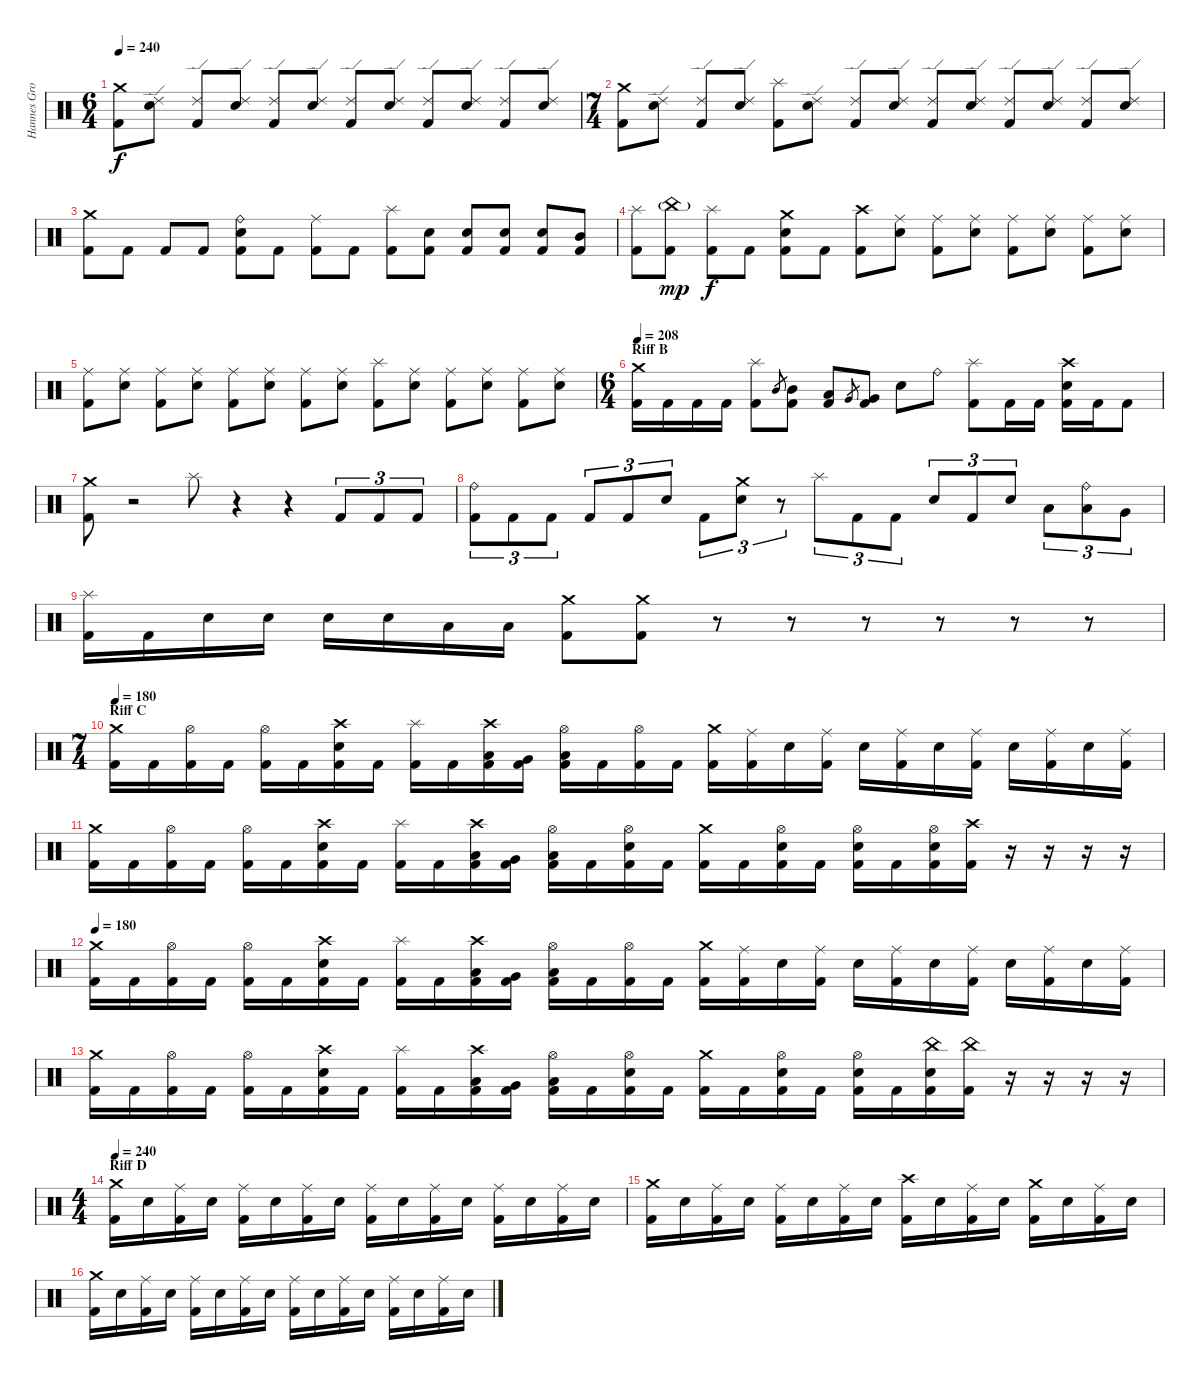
\track ("Hannes Grossmann" "Hannes Gro") {instrument percussion}
\staff {score}
\articulation defaults
\ts (6 4)
\tempo 240
\clef neutral
\ks c
("Crash medium (hit)" "Kick (hit) 2").8{dy f} ("Ride (edge) 2" "Electric Snare (hit)").8 ("Ride (edge) 2" "Kick (hit) 2").8 ("Ride (edge) 2" "Electric Snare (hit)").8 ("Ride (edge) 2" "Kick (hit) 2").8 ("Ride (edge) 2" "Electric Snare (hit)").8 ("Ride (edge) 2" "Kick (hit) 2").8 ("Ride (edge) 2" "Electric Snare (hit)").8 ("Ride (edge) 2" "Kick (hit) 2").8 ("Ride (edge) 2" "Electric Snare (hit)").8 ("Ride (edge) 2" "Kick (hit) 2").8 ("Ride (edge) 2" "Electric Snare (hit)").8 |
\ts (7 4)
("Crash medium (hit)" "Kick (hit) 2").8 ("Ride (edge) 2" "Electric Snare (hit)").8 ("Ride (edge) 2" "Kick (hit) 2").8 ("Ride (edge) 2" "Electric Snare (hit)").8 ("Splash (hit)" "Kick (hit) 2").8 ("Ride (edge) 2" "Electric Snare (hit)").8 ("Ride (edge) 2" "Kick (hit) 2").8 ("Ride (edge) 2" "Electric Snare (hit)").8 ("Ride (edge) 2" "Kick (hit) 2").8 ("Ride (edge) 2" "Electric Snare (hit)").8 ("Ride (edge) 2" "Kick (hit) 2").8 ("Ride (edge) 2" "Electric Snare (hit)").8 ("Ride (edge) 2" "Kick (hit) 2").8 ("Ride (edge) 2" "Electric Snare (hit)").8 |
("Crash medium (hit)" "Kick (hit) 2").8 "Kick (hit) 2".8 "Kick (hit) 2".8 "Kick (hit) 2".8 ("Ride (bell)" "Electric Snare (hit)" "Kick (hit) 2").8 "Kick (hit) 2".8 ("Ride (middle)" "Kick (hit) 2").8 "Kick (hit) 2".8 ("Splash (hit)" "Kick (hit) 2").8 ("Electric Snare (hit)" "Kick (hit) 2").8 ("Electric Snare (hit)" "Kick (hit) 2").8 ("Electric Snare (hit)" "Kick (hit) 2").8 ("Electric Snare (hit)" "Kick (hit) 2").8 ("Mid Tom (hit)" "Kick (hit) 2").8 |
("Splash (hit)" "Kick (hit) 2").8 ("China (hit)"{g} "Kick (hit) 2").8{dy mp} ("Splash (hit)" "Kick (hit) 2").8{dy f} "Kick (hit) 2".8 ("Crash medium (hit)" "Electric Snare (hit)" "Kick (hit) 2").8 "Kick (hit) 2".8 ("Crash high (hit)" "Kick (hit) 2").8 ("Ride (middle)" "Electric Snare (hit)").8 ("Ride (middle)" "Kick (hit) 2").8 ("Ride (middle)" "Electric Snare (hit)").8 ("Ride (middle)" "Kick (hit) 2").8 ("Ride (middle)" "Electric Snare (hit)").8 ("Ride (middle)" "Kick (hit) 2").8 ("Ride (middle)" "Electric Snare (hit)").8 |
("Ride (middle)" "Kick (hit) 2").8 ("Ride (middle)" "Electric Snare (hit)").8 ("Ride (middle)" "Kick (hit) 2").8 ("Ride (middle)" "Electric Snare (hit)").8 ("Ride (middle)" "Kick (hit) 2").8 ("Ride (middle)" "Electric Snare (hit)").8 ("Ride (middle)" "Kick (hit) 2").8 ("Ride (middle)" "Electric Snare (hit)").8 ("Splash (hit)" "Kick (hit) 2").8 ("Ride (middle)" "Electric Snare (hit)").8 ("Ride (middle)" "Kick (hit) 2").8 ("Ride (middle)" "Electric Snare (hit)").8 ("Ride (middle)" "Kick (hit) 2").8 ("Ride (middle)" "Electric Snare (hit)").8 |
\ts (6 4)
\section ("" "Riff B")
\tempo 208
("Crash medium (hit)" "Kick (hit) 2").16 "Kick (hit) 2".16 "Kick (hit) 2".16 "Kick (hit) 2".16 ("Splash (hit)" "Kick (hit) 2").8 "Mid Tom (hit)".8{gr} ("Mid Tom (hit)" "Kick (hit) 2").8 ("Low Tom (hit)" "Kick (hit) 2").8 "Very Low Tom (hit)".8{gr} ("Very Low Tom (hit)" "Kick (hit) 2").8 "Electric Snare (hit)".8 "Ride (bell)".8 ("Splash (hit)" "Kick (hit) 2").8 "Kick (hit) 2".16 "Kick (hit) 2".16 ("Crash high (hit)" "Electric Snare (hit)" "Kick (hit) 2").16 "Kick (hit) 2".16 "Kick (hit) 2".8 |
("Crash medium (hit)" "Kick (hit) 2").8 r.2 "Splash (hit)".8 r.4 r.4 "Kick (hit) 2".8{tu (3 2)} "Kick (hit) 2".8{tu (3 2)} "Kick (hit) 2".8{tu (3 2)} |
("Ride (bell)" "Kick (hit) 2").8{tu (3 2)} "Kick (hit) 2".8{tu (3 2)} "Kick (hit) 2".8{tu (3 2)} "Kick (hit) 2".8{tu (3 2)} "Kick (hit) 2".8{tu (3 2)} "Electric Snare (hit)".8{tu (3 2)} "Kick (hit) 2".8{tu (3 2)} ("Crash medium (hit)" "Electric Snare (hit)").8{tu (3 2)} r.8{tu (3 2)} "Splash (hit)".8{tu (3 2)} "Kick (hit) 2".8{tu (3 2)} "Kick (hit) 2".8{tu (3 2)} "Electric Snare (hit)".8{tu (3 2)} "Kick (hit) 2".8{tu (3 2)} "Electric Snare (hit)".8{tu (3 2)} "Low Tom (hit)".8{tu (3 2)} ("Ride (bell)" "Low Tom (hit)").8{tu (3 2)} "Very Low Tom (hit)".8{tu (3 2)} |
("Splash (hit)" "Kick (hit) 2").16 "Kick (hit) 2".16 "Electric Snare (hit)".16 "Electric Snare (hit)".16 "Electric Snare (hit)".16 "Electric Snare (hit)".16 "Low Tom (hit)".16 "Low Tom (hit)".16 ("Crash medium (hit)" "Kick (hit) 2").8 ("Crash medium (hit)" "Kick (hit) 2").8 r.8 r.8 r.8 r.8 r.8 r.8 |
\ts (7 4)
\section ("" "Riff C")
\tempo 180
("Crash medium (hit)" "Kick (hit) 2").16 "Kick (hit) 2".16 ("Hi-Hat (open)" "Kick (hit) 2").16 "Kick (hit) 2".16 ("Hi-Hat (open)" "Kick (hit) 2").16 "Kick (hit) 2".16 ("Crash high (hit)" "Electric Snare (hit)" "Kick (hit) 2").16 "Kick (hit) 2".16 ("Splash (hit)" "Kick (hit) 2").16 "Kick (hit) 2".16 ("Crash high (hit)" "Low Tom (hit)" "Kick (hit) 2").16 ("Very Low Tom (hit)" "Kick (hit) 2").16 ("Hi-Hat (open)" "Low Tom (hit)" "Kick (hit) 2").16 "Kick (hit) 2".16 ("Hi-Hat (open)" "Kick (hit) 2").16 "Kick (hit) 2".16 ("Crash medium (hit)" "Kick (hit) 2").16 ("Ride (middle)" "Kick (hit) 2").16 "Electric Snare (hit)".16 ("Ride (middle)" "Kick (hit) 2").16 "Electric Snare (hit)".16 ("Ride (middle)" "Kick (hit) 2").16 "Electric Snare (hit)".16 ("Ride (middle)" "Kick (hit) 2").16 "Electric Snare (hit)".16 ("Ride (middle)" "Kick (hit) 2").16 "Electric Snare (hit)".16 ("Ride (middle)" "Kick (hit) 2").16 |
("Crash medium (hit)" "Kick (hit) 2").16 "Kick (hit) 2".16 ("Hi-Hat (open)" "Kick (hit) 2").16 "Kick (hit) 2".16 ("Hi-Hat (open)" "Kick (hit) 2").16 "Kick (hit) 2".16 ("Crash high (hit)" "Electric Snare (hit)" "Kick (hit) 2").16 "Kick (hit) 2".16 ("Splash (hit)" "Kick (hit) 2").16 "Kick (hit) 2".16 ("Crash high (hit)" "Low Tom (hit)" "Kick (hit) 2").16 ("Very Low Tom (hit)" "Kick (hit) 2").16 ("Hi-Hat (open)" "Low Tom (hit)" "Kick (hit) 2").16 "Kick (hit) 2".16 ("Hi-Hat (open)" "Electric Snare (hit)" "Kick (hit) 2").16 "Kick (hit) 2".16 ("Crash medium (hit)" "Kick (hit) 2").16 "Kick (hit) 2".16 ("Hi-Hat (open)" "Electric Snare (hit)" "Kick (hit) 2").16 "Kick (hit) 2".16 ("Hi-Hat (open)" "Electric Snare (hit)" "Kick (hit) 2").16 "Kick (hit) 2".16 ("Hi-Hat (open)" "Electric Snare (hit)" "Kick (hit) 2").16 ("Crash high (hit)" "Kick (hit) 2").16 r.16 r.16 r.16 r.16 |
\tempo 180
("Crash medium (hit)" "Kick (hit) 2").16 "Kick (hit) 2".16 ("Hi-Hat (open)" "Kick (hit) 2").16 "Kick (hit) 2".16 ("Hi-Hat (open)" "Kick (hit) 2").16 "Kick (hit) 2".16 ("Crash high (hit)" "Electric Snare (hit)" "Kick (hit) 2").16 "Kick (hit) 2".16 ("Splash (hit)" "Kick (hit) 2").16 "Kick (hit) 2".16 ("Crash high (hit)" "Low Tom (hit)" "Kick (hit) 2").16 ("Very Low Tom (hit)" "Kick (hit) 2").16 ("Hi-Hat (open)" "Low Tom (hit)" "Kick (hit) 2").16 "Kick (hit) 2".16 ("Hi-Hat (open)" "Kick (hit) 2").16 "Kick (hit) 2".16 ("Crash medium (hit)" "Kick (hit) 2").16 ("Ride (middle)" "Kick (hit) 2").16 "Electric Snare (hit)".16 ("Ride (middle)" "Kick (hit) 2").16 "Electric Snare (hit)".16 ("Ride (middle)" "Kick (hit) 2").16 "Electric Snare (hit)".16 ("Ride (middle)" "Kick (hit) 2").16 "Electric Snare (hit)".16 ("Ride (middle)" "Kick (hit) 2").16 "Electric Snare (hit)".16 ("Ride (middle)" "Kick (hit) 2").16 |
("Crash medium (hit)" "Kick (hit) 2").16 "Kick (hit) 2".16 ("Hi-Hat (open)" "Kick (hit) 2").16 "Kick (hit) 2".16 ("Hi-Hat (open)" "Kick (hit) 2").16 "Kick (hit) 2".16 ("Crash high (hit)" "Electric Snare (hit)" "Kick (hit) 2").16 "Kick (hit) 2".16 ("Splash (hit)" "Kick (hit) 2").16 "Kick (hit) 2".16 ("Crash high (hit)" "Low Tom (hit)" "Kick (hit) 2").16 ("Very Low Tom (hit)" "Kick (hit) 2").16 ("Hi-Hat (open)" "Low Tom (hit)" "Kick (hit) 2").16 "Kick (hit) 2".16 ("Hi-Hat (open)" "Electric Snare (hit)" "Kick (hit) 2").16 "Kick (hit) 2".16 ("Crash medium (hit)" "Kick (hit) 2").16 "Kick (hit) 2".16 ("Hi-Hat (open)" "Electric Snare (hit)" "Kick (hit) 2").16 "Kick (hit) 2".16 ("Hi-Hat (open)" "Electric Snare (hit)" "Kick (hit) 2").16 "Kick (hit) 2".16 ("China (hit)" "Electric Snare (hit)" "Kick (hit) 2").16 ("China (hit)" "Kick (hit) 2").16 r.16 r.16 r.16 r.16 |
\ts (4 4)
\section ("" "Riff D")
\tempo 240
("Crash medium (hit)" "Kick (hit) 2").16 "Electric Snare (hit)".16 ("Ride (middle)" "Kick (hit) 2").16 "Electric Snare (hit)".16 ("Ride (middle)" "Kick (hit) 2").16 "Electric Snare (hit)".16 ("Ride (middle)" "Kick (hit) 2").16 "Electric Snare (hit)".16 ("Ride (middle)" "Kick (hit) 2").16 "Electric Snare (hit)".16 ("Ride (middle)" "Kick (hit) 2").16 "Electric Snare (hit)".16 ("Ride (middle)" "Kick (hit) 2").16 "Electric Snare (hit)".16 ("Ride (middle)" "Kick (hit) 2").16 "Electric Snare (hit)".16 |
("Crash medium (hit)" "Kick (hit) 2").16 "Electric Snare (hit)".16 ("Ride (middle)" "Kick (hit) 2").16 "Electric Snare (hit)".16 ("Ride (middle)" "Kick (hit) 2").16 "Electric Snare (hit)".16 ("Ride (middle)" "Kick (hit) 2").16 "Electric Snare (hit)".16 ("Crash high (hit)" "Kick (hit) 2").16 "Electric Snare (hit)".16 ("Ride (middle)" "Kick (hit) 2").16 "Electric Snare (hit)".16 ("Crash medium (hit)" "Kick (hit) 2").16 "Electric Snare (hit)".16 ("Ride (middle)" "Kick (hit) 2").16 "Electric Snare (hit)".16 |
("Crash medium (hit)" "Kick (hit) 2").16 "Electric Snare (hit)".16 ("Ride (middle)" "Kick (hit) 2").16 "Electric Snare (hit)".16 ("Ride (middle)" "Kick (hit) 2").16 "Electric Snare (hit)".16 ("Ride (middle)" "Kick (hit) 2").16 "Electric Snare (hit)".16 ("Ride (middle)" "Kick (hit) 2").16 "Electric Snare (hit)".16 ("Ride (middle)" "Kick (hit) 2").16 "Electric Snare (hit)".16 ("Ride (middle)" "Kick (hit) 2").16 "Electric Snare (hit)".16 ("Ride (middle)" "Kick (hit) 2").16 "Electric Snare (hit)".16
